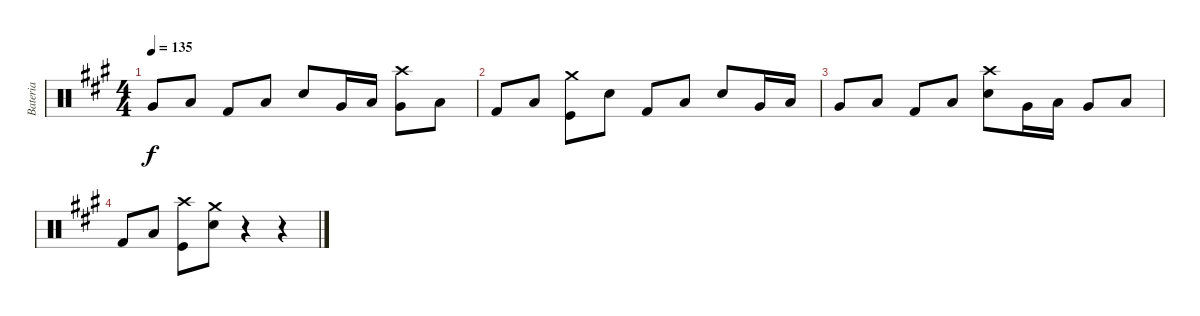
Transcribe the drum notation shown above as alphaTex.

\track ("Bateria" "Bateria") {instrument percussion}
\staff {score}
\articulation defaults
\ts (4 4)
\tempo 135
\clef neutral
\ks a "Very Low Tom (hit)".8{dy f} "Low Floor Tom (hit)".8 "Kick (hit) 2".8 "Low Floor Tom (hit)".8 "Electric Snare (hit)".8 "Very Low Tom (hit)".16 "Low Floor Tom (hit)".16
("Very Low Tom (hit)" "Crash high (hit)").8 "Low Floor Tom (hit)".8 |
"Kick (hit) 2".8 "Low Floor Tom (hit)".8 ("Kick (hit)" "Crash medium (hit)").8 "Electric Snare (hit)".8 "Kick (hit) 2".8 "Low Floor Tom (hit)".8 "Electric Snare (hit)".8 "Very Low Tom (hit)".16 "Low Floor Tom (hit)".16 |
"Very Low Tom (hit)".8 "Low Floor Tom (hit)".8 "Kick (hit) 2".8 "Low Floor Tom (hit)".8 ("Electric Snare (hit)" "Crash high (hit)").8 "Very Low Tom (hit)".16 "Low Floor Tom (hit)".16 "Very Low Tom (hit)".8 "Low Floor Tom (hit)".8 |
"Kick (hit) 2".8 "Low Floor Tom (hit)".8 ("Kick (hit)" "Crash high (hit)").8 ("Electric Snare (hit)" "Crash medium (hit)").8 r.4 r.4
